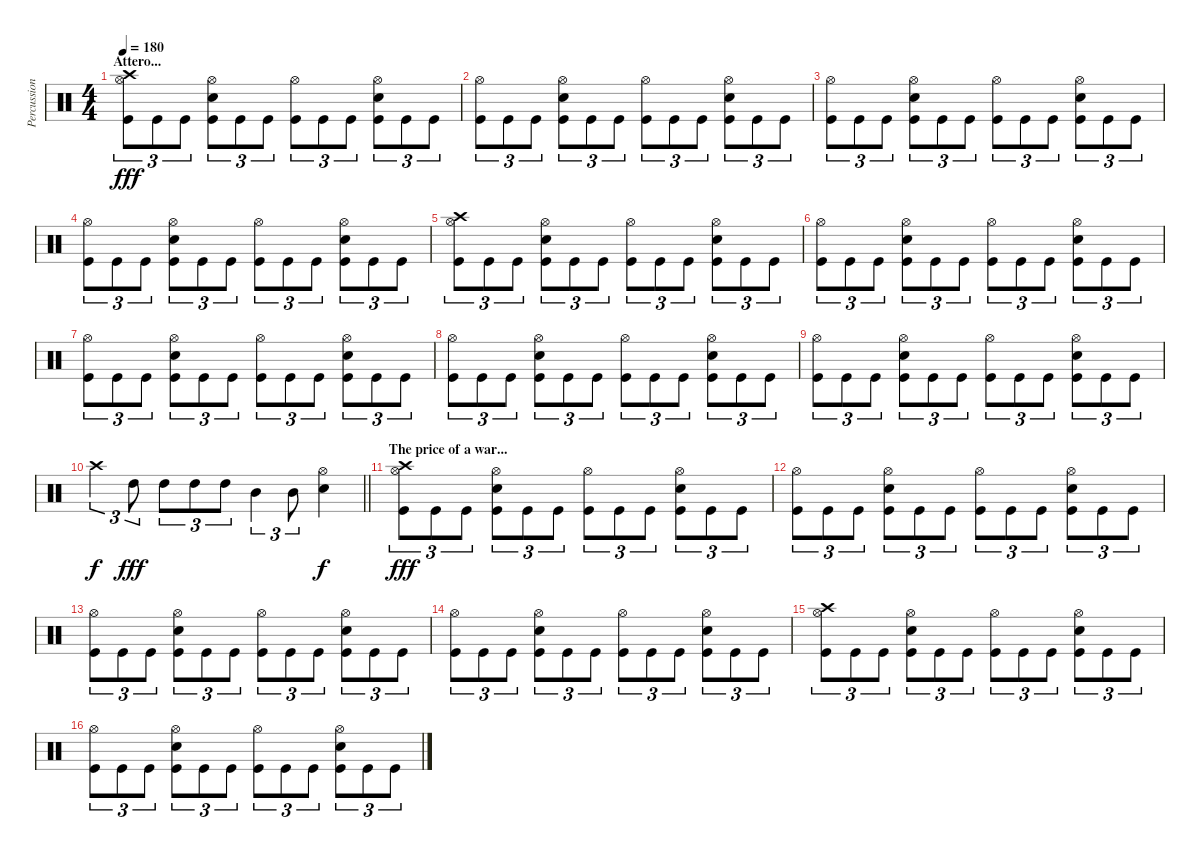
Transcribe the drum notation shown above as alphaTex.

\track ("Percussion" "Percussion") {instrument percussion}
\staff {score}
\articulation defaults
\ts (4 4)
\section ("" "Attero...")
\tempo 180
\clef neutral
\ks c
("Crash high (hit)" "Hi-Hat (open)" "Kick (hit)").8{tu (3 2) dy fff} "Kick (hit)".8{tu (3 2)} "Kick (hit)".8{tu (3 2)} ("Hi-Hat (open)" "Electric Snare (hit)" "Kick (hit)").8{tu (3 2)} "Kick (hit)".8{tu (3 2)} "Kick (hit)".8{tu (3 2)} ("Hi-Hat (open)" "Kick (hit)").8{tu (3 2)} "Kick (hit)".8{tu (3 2)} "Kick (hit)".8{tu (3 2)} ("Hi-Hat (open)" "Electric Snare (hit)" "Kick (hit)").8{tu (3 2)} "Kick (hit)".8{tu (3 2)} "Kick (hit)".8{tu (3 2)} |
("Hi-Hat (open)" "Kick (hit)").8{tu (3 2)} "Kick (hit)".8{tu (3 2)} "Kick (hit)".8{tu (3 2)} ("Hi-Hat (open)" "Electric Snare (hit)" "Kick (hit)").8{tu (3 2)} "Kick (hit)".8{tu (3 2)} "Kick (hit)".8{tu (3 2)} ("Hi-Hat (open)" "Kick (hit)").8{tu (3 2)} "Kick (hit)".8{tu (3 2)} "Kick (hit)".8{tu (3 2)} ("Hi-Hat (open)" "Electric Snare (hit)" "Kick (hit)").8{tu (3 2)} "Kick (hit)".8{tu (3 2)} "Kick (hit)".8{tu (3 2)} |
("Hi-Hat (open)" "Kick (hit)").8{tu (3 2)} "Kick (hit)".8{tu (3 2)} "Kick (hit)".8{tu (3 2)} ("Hi-Hat (open)" "Electric Snare (hit)" "Kick (hit)").8{tu (3 2)} "Kick (hit)".8{tu (3 2)} "Kick (hit)".8{tu (3 2)} ("Hi-Hat (open)" "Kick (hit)").8{tu (3 2)} "Kick (hit)".8{tu (3 2)} "Kick (hit)".8{tu (3 2)} ("Hi-Hat (open)" "Electric Snare (hit)" "Kick (hit)").8{tu (3 2)} "Kick (hit)".8{tu (3 2)} "Kick (hit)".8{tu (3 2)} |
("Hi-Hat (open)" "Kick (hit)").8{tu (3 2)} "Kick (hit)".8{tu (3 2)} "Kick (hit)".8{tu (3 2)} ("Hi-Hat (open)" "Electric Snare (hit)" "Kick (hit)").8{tu (3 2)} "Kick (hit)".8{tu (3 2)} "Kick (hit)".8{tu (3 2)} ("Hi-Hat (open)" "Kick (hit)").8{tu (3 2)} "Kick (hit)".8{tu (3 2)} "Kick (hit)".8{tu (3 2)} ("Hi-Hat (open)" "Electric Snare (hit)" "Kick (hit)").8{tu (3 2)} "Kick (hit)".8{tu (3 2)} "Kick (hit)".8{tu (3 2)} |
("Crash high (hit)" "Hi-Hat (open)" "Kick (hit)").8{tu (3 2)} "Kick (hit)".8{tu (3 2)} "Kick (hit)".8{tu (3 2)} ("Hi-Hat (open)" "Electric Snare (hit)" "Kick (hit)").8{tu (3 2)} "Kick (hit)".8{tu (3 2)} "Kick (hit)".8{tu (3 2)} ("Hi-Hat (open)" "Kick (hit)").8{tu (3 2)} "Kick (hit)".8{tu (3 2)} "Kick (hit)".8{tu (3 2)} ("Hi-Hat (open)" "Electric Snare (hit)" "Kick (hit)").8{tu (3 2)} "Kick (hit)".8{tu (3 2)} "Kick (hit)".8{tu (3 2)} |
("Hi-Hat (open)" "Kick (hit)").8{tu (3 2)} "Kick (hit)".8{tu (3 2)} "Kick (hit)".8{tu (3 2)} ("Hi-Hat (open)" "Electric Snare (hit)" "Kick (hit)").8{tu (3 2)} "Kick (hit)".8{tu (3 2)} "Kick (hit)".8{tu (3 2)} ("Hi-Hat (open)" "Kick (hit)").8{tu (3 2)} "Kick (hit)".8{tu (3 2)} "Kick (hit)".8{tu (3 2)} ("Hi-Hat (open)" "Electric Snare (hit)" "Kick (hit)").8{tu (3 2)} "Kick (hit)".8{tu (3 2)} "Kick (hit)".8{tu (3 2)} |
("Hi-Hat (open)" "Kick (hit)").8{tu (3 2)} "Kick (hit)".8{tu (3 2)} "Kick (hit)".8{tu (3 2)} ("Hi-Hat (open)" "Electric Snare (hit)" "Kick (hit)").8{tu (3 2)} "Kick (hit)".8{tu (3 2)} "Kick (hit)".8{tu (3 2)} ("Hi-Hat (open)" "Kick (hit)").8{tu (3 2)} "Kick (hit)".8{tu (3 2)} "Kick (hit)".8{tu (3 2)} ("Hi-Hat (open)" "Electric Snare (hit)" "Kick (hit)").8{tu (3 2)} "Kick (hit)".8{tu (3 2)} "Kick (hit)".8{tu (3 2)} |
("Hi-Hat (open)" "Kick (hit)").8{tu (3 2)} "Kick (hit)".8{tu (3 2)} "Kick (hit)".8{tu (3 2)} ("Hi-Hat (open)" "Electric Snare (hit)" "Kick (hit)").8{tu (3 2)} "Kick (hit)".8{tu (3 2)} "Kick (hit)".8{tu (3 2)} ("Hi-Hat (open)" "Kick (hit)").8{tu (3 2)} "Kick (hit)".8{tu (3 2)} "Kick (hit)".8{tu (3 2)} ("Hi-Hat (open)" "Electric Snare (hit)" "Kick (hit)").8{tu (3 2)} "Kick (hit)".8{tu (3 2)} "Kick (hit)".8{tu (3 2)} |
("Hi-Hat (open)" "Kick (hit)").8{tu (3 2)} "Kick (hit)".8{tu (3 2)} "Kick (hit)".8{tu (3 2)} ("Hi-Hat (open)" "Electric Snare (hit)" "Kick (hit)").8{tu (3 2)} "Kick (hit)".8{tu (3 2)} "Kick (hit)".8{tu (3 2)} ("Hi-Hat (open)" "Kick (hit)").8{tu (3 2)} "Kick (hit)".8{tu (3 2)} "Kick (hit)".8{tu (3 2)} ("Hi-Hat (open)" "Electric Snare (hit)" "Kick (hit)").8{tu (3 2)} "Kick (hit)".8{tu (3 2)} "Kick (hit)".8{tu (3 2)} |
\barLineRight lightlight "Crash high (hit)".4{tu (3 2) dy f} "High Tom (hit)".8{tu (3 2) dy fff} "High Tom (hit)".8{tu (3 2)} "High Tom (hit)".8{tu (3 2)} "High Tom (hit)".8{tu (3 2)} "Mid Tom (hit)".4{tu (3 2)} "Mid Tom (hit)".8{tu (3 2)}
("Hi-Hat (open)" "Electric Snare (hit)").4{dy f} |
\section ("" "The price of a war...")
("Crash high (hit)" "Hi-Hat (open)" "Kick (hit)").8{tu (3 2) dy fff} "Kick (hit)".8{tu (3 2)} "Kick (hit)".8{tu (3 2)} ("Hi-Hat (open)" "Electric Snare (hit)" "Kick (hit)").8{tu (3 2)} "Kick (hit)".8{tu (3 2)} "Kick (hit)".8{tu (3 2)} ("Hi-Hat (open)" "Kick (hit)").8{tu (3 2)} "Kick (hit)".8{tu (3 2)} "Kick (hit)".8{tu (3 2)} ("Hi-Hat (open)" "Electric Snare (hit)" "Kick (hit)").8{tu (3 2)} "Kick (hit)".8{tu (3 2)} "Kick (hit)".8{tu (3 2)} |
("Hi-Hat (open)" "Kick (hit)").8{tu (3 2)} "Kick (hit)".8{tu (3 2)} "Kick (hit)".8{tu (3 2)} ("Hi-Hat (open)" "Electric Snare (hit)" "Kick (hit)").8{tu (3 2)} "Kick (hit)".8{tu (3 2)} "Kick (hit)".8{tu (3 2)} ("Hi-Hat (open)" "Kick (hit)").8{tu (3 2)} "Kick (hit)".8{tu (3 2)} "Kick (hit)".8{tu (3 2)} ("Hi-Hat (open)" "Electric Snare (hit)" "Kick (hit)").8{tu (3 2)} "Kick (hit)".8{tu (3 2)} "Kick (hit)".8{tu (3 2)} |
("Hi-Hat (open)" "Kick (hit)").8{tu (3 2)} "Kick (hit)".8{tu (3 2)} "Kick (hit)".8{tu (3 2)} ("Hi-Hat (open)" "Electric Snare (hit)" "Kick (hit)").8{tu (3 2)} "Kick (hit)".8{tu (3 2)} "Kick (hit)".8{tu (3 2)} ("Hi-Hat (open)" "Kick (hit)").8{tu (3 2)} "Kick (hit)".8{tu (3 2)} "Kick (hit)".8{tu (3 2)} ("Hi-Hat (open)" "Electric Snare (hit)" "Kick (hit)").8{tu (3 2)} "Kick (hit)".8{tu (3 2)} "Kick (hit)".8{tu (3 2)} |
("Hi-Hat (open)" "Kick (hit)").8{tu (3 2)} "Kick (hit)".8{tu (3 2)} "Kick (hit)".8{tu (3 2)} ("Hi-Hat (open)" "Electric Snare (hit)" "Kick (hit)").8{tu (3 2)} "Kick (hit)".8{tu (3 2)} "Kick (hit)".8{tu (3 2)} ("Hi-Hat (open)" "Kick (hit)").8{tu (3 2)} "Kick (hit)".8{tu (3 2)} "Kick (hit)".8{tu (3 2)} ("Hi-Hat (open)" "Electric Snare (hit)" "Kick (hit)").8{tu (3 2)} "Kick (hit)".8{tu (3 2)} "Kick (hit)".8{tu (3 2)} |
("Crash high (hit)" "Hi-Hat (open)" "Kick (hit)").8{tu (3 2)} "Kick (hit)".8{tu (3 2)} "Kick (hit)".8{tu (3 2)} ("Hi-Hat (open)" "Electric Snare (hit)" "Kick (hit)").8{tu (3 2)} "Kick (hit)".8{tu (3 2)} "Kick (hit)".8{tu (3 2)} ("Hi-Hat (open)" "Kick (hit)").8{tu (3 2)} "Kick (hit)".8{tu (3 2)} "Kick (hit)".8{tu (3 2)} ("Hi-Hat (open)" "Electric Snare (hit)" "Kick (hit)").8{tu (3 2)} "Kick (hit)".8{tu (3 2)} "Kick (hit)".8{tu (3 2)} |
("Hi-Hat (open)" "Kick (hit)").8{tu (3 2)} "Kick (hit)".8{tu (3 2)} "Kick (hit)".8{tu (3 2)} ("Hi-Hat (open)" "Electric Snare (hit)" "Kick (hit)").8{tu (3 2)} "Kick (hit)".8{tu (3 2)} "Kick (hit)".8{tu (3 2)} ("Hi-Hat (open)" "Kick (hit)").8{tu (3 2)} "Kick (hit)".8{tu (3 2)} "Kick (hit)".8{tu (3 2)} ("Hi-Hat (open)" "Electric Snare (hit)" "Kick (hit)").8{tu (3 2)} "Kick (hit)".8{tu (3 2)} "Kick (hit)".8{tu (3 2)}
